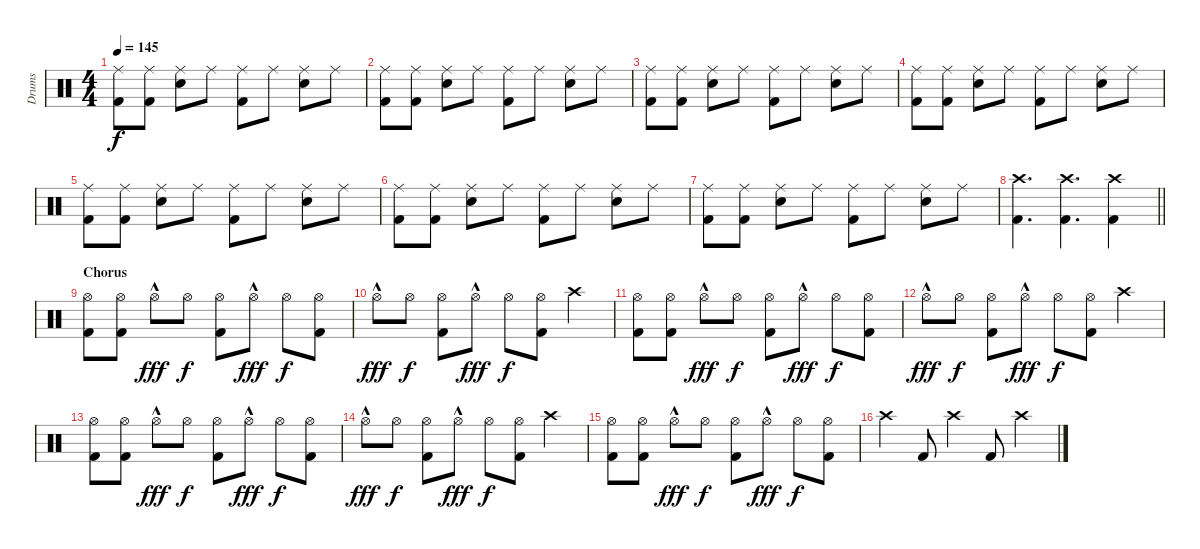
\track ("Drums" "Drums") {instrument percussion}
\staff {score}
\articulation defaults
\ts (4 4)
\tempo 145
\clef neutral
\ks c
("Ride (middle)" "Kick (hit) 2").8{dy f} ("Ride (middle)" "Kick (hit) 2").8 ("Ride (middle)" "Electric Snare (hit)").8 "Ride (middle)".8 ("Ride (middle)" "Kick (hit) 2").8 "Ride (middle)".8 ("Ride (middle)" "Electric Snare (hit)").8 "Ride (middle)".8 |
("Ride (middle)" "Kick (hit) 2").8 ("Ride (middle)" "Kick (hit) 2").8 ("Ride (middle)" "Electric Snare (hit)").8 "Ride (middle)".8 ("Ride (middle)" "Kick (hit) 2").8 "Ride (middle)".8 ("Ride (middle)" "Electric Snare (hit)").8 "Ride (middle)".8 |
("Ride (middle)" "Kick (hit) 2").8 ("Ride (middle)" "Kick (hit) 2").8 ("Ride (middle)" "Electric Snare (hit)").8 "Ride (middle)".8 ("Ride (middle)" "Kick (hit) 2").8 "Ride (middle)".8 ("Ride (middle)" "Electric Snare (hit)").8 "Ride (middle)".8 |
("Ride (middle)" "Kick (hit) 2").8 ("Ride (middle)" "Kick (hit) 2").8 ("Ride (middle)" "Electric Snare (hit)").8 "Ride (middle)".8 ("Ride (middle)" "Kick (hit) 2").8 "Ride (middle)".8 ("Ride (middle)" "Electric Snare (hit)").8 "Ride (middle)".8 |
("Ride (middle)" "Kick (hit) 2").8 ("Ride (middle)" "Kick (hit) 2").8 ("Ride (middle)" "Electric Snare (hit)").8 "Ride (middle)".8 ("Ride (middle)" "Kick (hit) 2").8 "Ride (middle)".8 ("Ride (middle)" "Electric Snare (hit)").8 "Ride (middle)".8 |
("Ride (middle)" "Kick (hit) 2").8 ("Ride (middle)" "Kick (hit) 2").8 ("Ride (middle)" "Electric Snare (hit)").8 "Ride (middle)".8 ("Ride (middle)" "Kick (hit) 2").8 "Ride (middle)".8 ("Ride (middle)" "Electric Snare (hit)").8 "Ride (middle)".8 |
("Ride (middle)" "Kick (hit) 2").8 ("Ride (middle)" "Kick (hit) 2").8 ("Ride (middle)" "Electric Snare (hit)").8 "Ride (middle)".8 ("Ride (middle)" "Kick (hit) 2").8 "Ride (middle)".8 ("Ride (middle)" "Electric Snare (hit)").8 "Ride (middle)".8 |
\barLineRight lightlight
("Crash high (hit)" "Kick (hit) 2").4{d} ("Crash high (hit)" "Kick (hit) 2").4{d} ("Crash high (hit)" "Kick (hit) 2").4 |
\section ("" "Chorus")
("Hi-Hat (open)" "Kick (hit) 2").8 ("Hi-Hat (open)" "Kick (hit) 2").8 "Hi-Hat (open)"{hac}.8{dy fff} "Hi-Hat (open)".8{dy f} ("Hi-Hat (open)" "Kick (hit) 2").8 "Hi-Hat (open)"{hac}.8{dy fff} "Hi-Hat (open)".8{dy f} ("Hi-Hat (open)" "Kick (hit) 2").8 |
"Hi-Hat (open)"{hac}.8{dy fff} "Hi-Hat (open)".8{dy f} ("Hi-Hat (open)" "Kick (hit) 2").8 "Hi-Hat (open)"{hac}.8{dy fff} "Hi-Hat (open)".8{dy f} ("Hi-Hat (open)" "Kick (hit) 2").8 "Crash high (hit)".4 |
("Hi-Hat (open)" "Kick (hit) 2").8 ("Hi-Hat (open)" "Kick (hit) 2").8 "Hi-Hat (open)"{hac}.8{dy fff} "Hi-Hat (open)".8{dy f} ("Hi-Hat (open)" "Kick (hit) 2").8 "Hi-Hat (open)"{hac}.8{dy fff} "Hi-Hat (open)".8{dy f} ("Hi-Hat (open)" "Kick (hit) 2").8 |
"Hi-Hat (open)"{hac}.8{dy fff} "Hi-Hat (open)".8{dy f} ("Hi-Hat (open)" "Kick (hit) 2").8 "Hi-Hat (open)"{hac}.8{dy fff} "Hi-Hat (open)".8{dy f} ("Hi-Hat (open)" "Kick (hit) 2").8 "Crash high (hit)".4 |
("Hi-Hat (open)" "Kick (hit) 2").8 ("Hi-Hat (open)" "Kick (hit) 2").8 "Hi-Hat (open)"{hac}.8{dy fff} "Hi-Hat (open)".8{dy f} ("Hi-Hat (open)" "Kick (hit) 2").8 "Hi-Hat (open)"{hac}.8{dy fff} "Hi-Hat (open)".8{dy f} ("Hi-Hat (open)" "Kick (hit) 2").8 |
"Hi-Hat (open)"{hac}.8{dy fff} "Hi-Hat (open)".8{dy f} ("Hi-Hat (open)" "Kick (hit) 2").8 "Hi-Hat (open)"{hac}.8{dy fff} "Hi-Hat (open)".8{dy f} ("Hi-Hat (open)" "Kick (hit) 2").8 "Crash high (hit)".4 |
("Hi-Hat (open)" "Kick (hit) 2").8 ("Hi-Hat (open)" "Kick (hit) 2").8 "Hi-Hat (open)"{hac}.8{dy fff} "Hi-Hat (open)".8{dy f} ("Hi-Hat (open)" "Kick (hit) 2").8 "Hi-Hat (open)"{hac}.8{dy fff} "Hi-Hat (open)".8{dy f} ("Hi-Hat (open)" "Kick (hit) 2").8 |
"Crash high (hit)".4 "Kick (hit) 2".8 "Crash high (hit)".4 "Kick (hit) 2".8 "Crash high (hit)".4
